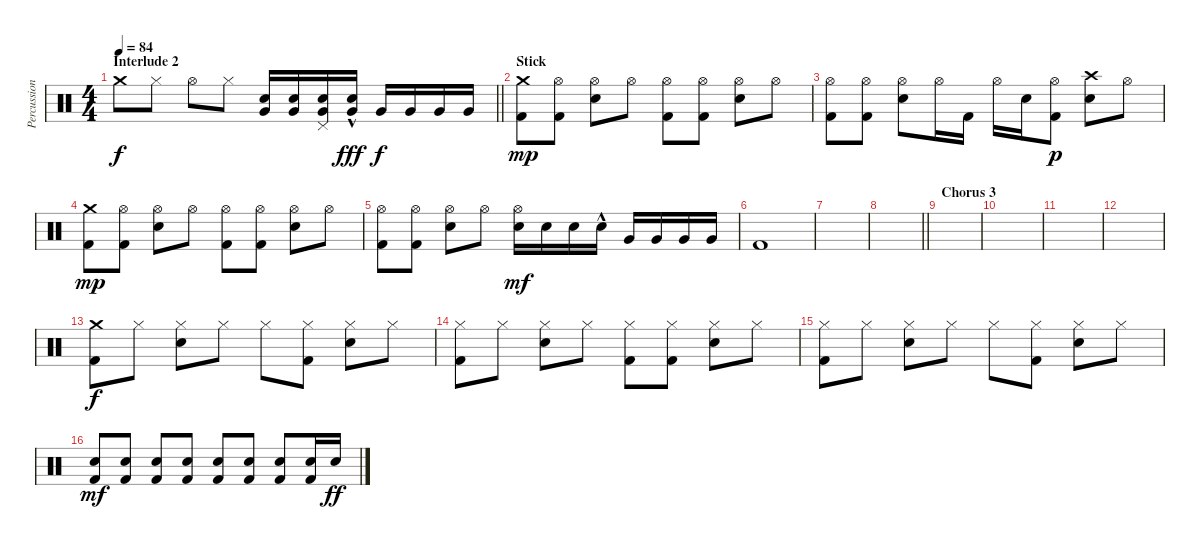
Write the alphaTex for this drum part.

\track ("Percussion" "Percussion") {instrument percussion}
\staff {score}
\articulation defaults
\ts (4 4)
\section ("" "Interlude 2")
\tempo 84
\clef neutral
\barLineRight lightlight
\ks c "Crash medium (hit)".8{dy f} "Hi-Hat (closed)".8 "Hi-Hat (open)".8 "Hi-Hat (closed)".8
("Snare (hit) 2" "Very Low Tom (hit)").16 ("Snare (hit) 2" "Very Low Tom (hit)").16 ("Pedal Hi-Hat (hit)" "Snare (hit) 2" "Very Low Tom (hit)").16 ("Snare (hit) 2"{hac} "Very Low Tom (hit)").16{dy fff} "Very Low Tom (hit)".16{dy f} "Very Low Tom (hit)".16 "Very Low Tom (hit)".16 "Very Low Tom (hit)".16 |
\section ("" "Stick")
("Crash medium (hit)" "Kick (hit) 2").8{dy mp} ("Hi-Hat (open)" "Kick (hit) 2").8 ("Hi-Hat (open)" "Electric Snare (hit)").8 "Hi-Hat (open)".8 ("Hi-Hat (open)" "Kick (hit) 2").8 ("Hi-Hat (open)" "Kick (hit) 2").8 ("Hi-Hat (open)" "Electric Snare (hit)").8 "Hi-Hat (open)".8 |
("Hi-Hat (open)" "Kick (hit) 2").8 ("Hi-Hat (open)" "Kick (hit) 2").8 ("Hi-Hat (open)" "Electric Snare (hit)").8 "Hi-Hat (open)".16 "Kick (hit) 2".16 "Hi-Hat (open)".16 "Electric Snare (hit)".16 ("Hi-Hat (open)" "Kick (hit) 2").8{dy p} ("Crash high (hit)" "Electric Snare (hit)").8 "Hi-Hat (open)".8 |
("Crash medium (hit)" "Kick (hit) 2").8{dy mp} ("Hi-Hat (open)" "Kick (hit) 2").8 ("Hi-Hat (open)" "Electric Snare (hit)").8 "Hi-Hat (open)".8 ("Hi-Hat (open)" "Kick (hit) 2").8 ("Hi-Hat (open)" "Kick (hit) 2").8 ("Hi-Hat (open)" "Electric Snare (hit)").8 "Hi-Hat (open)".8 |
("Hi-Hat (open)" "Kick (hit) 2").8 ("Hi-Hat (open)" "Kick (hit) 2").8 ("Hi-Hat (open)" "Electric Snare (hit)").8 "Hi-Hat (open)".8 ("Hi-Hat (open)" "Electric Snare (hit)").16{dy mf} "Electric Snare (hit)".16 "Electric Snare (hit)".16 "Electric Snare (hit)"{hac}.16 "Very Low Tom (hit)".16 "Very Low Tom (hit)".16 "Very Low Tom (hit)".16 "Very Low Tom (hit)".16 |
"Kick (hit) 2".1 |
|
\barLineRight lightlight
|
\section ("" "Chorus 3")
|
|
|
|
("Crash medium (hit)" "Kick (hit) 2").8{dy f} "Hi-Hat (closed)".8 ("Hi-Hat (closed)" "Electric Snare (hit)").8 "Hi-Hat (closed)".8 "Hi-Hat (closed)".8 ("Hi-Hat (closed)" "Kick (hit) 2").8 ("Hi-Hat (closed)" "Electric Snare (hit)").8 "Hi-Hat (closed)".8 |
("Hi-Hat (closed)" "Kick (hit) 2").8 "Hi-Hat (closed)".8 ("Hi-Hat (closed)" "Electric Snare (hit)").8 "Hi-Hat (closed)".8 ("Hi-Hat (closed)" "Kick (hit) 2").8 ("Hi-Hat (closed)" "Kick (hit) 2").8 ("Hi-Hat (closed)" "Electric Snare (hit)").8 "Hi-Hat (closed)".8 |
("Hi-Hat (closed)" "Kick (hit) 2").8 "Hi-Hat (closed)".8 ("Hi-Hat (closed)" "Electric Snare (hit)").8 "Hi-Hat (closed)".8 "Hi-Hat (closed)".8 ("Hi-Hat (closed)" "Kick (hit) 2").8 ("Hi-Hat (closed)" "Electric Snare (hit)").8 "Hi-Hat (closed)".8 |
("Electric Snare (hit)" "Kick (hit) 2").8{dy mf} ("Electric Snare (hit)" "Kick (hit) 2").8 ("Electric Snare (hit)" "Kick (hit) 2").8 ("Electric Snare (hit)" "Kick (hit) 2").8 ("Electric Snare (hit)" "Kick (hit) 2").8 ("Electric Snare (hit)" "Kick (hit) 2").8 ("Electric Snare (hit)" "Kick (hit) 2").8 ("Electric Snare (hit)" "Kick (hit) 2").16 "Electric Snare (hit)".16{dy ff}
